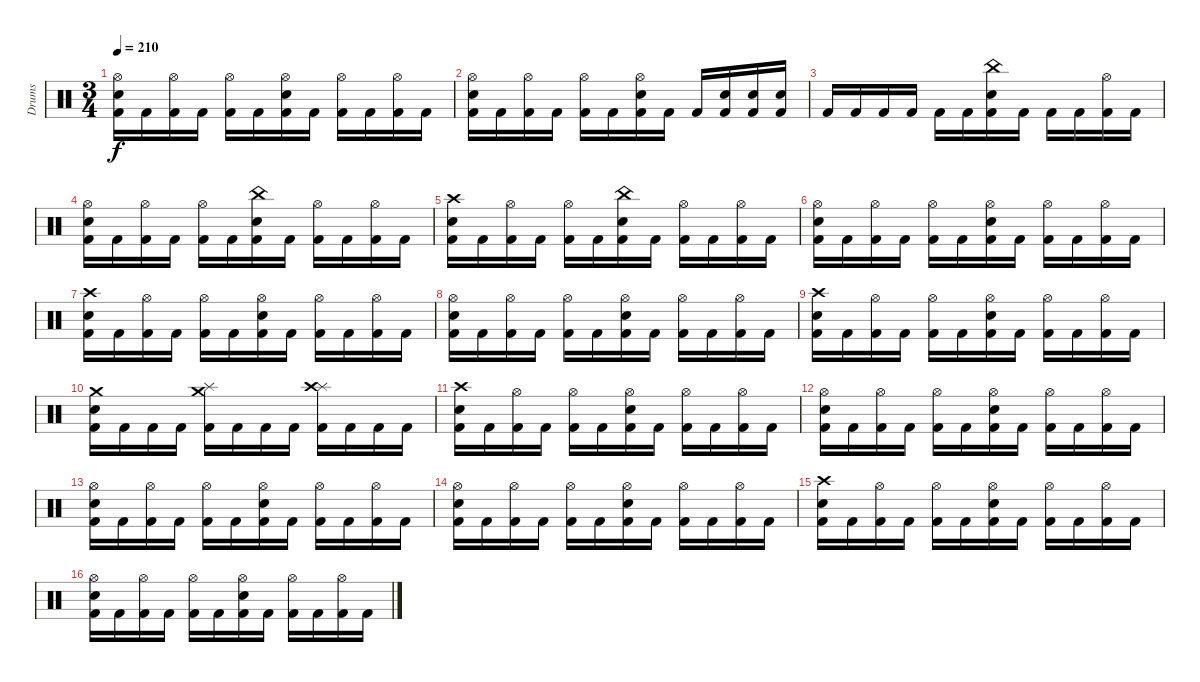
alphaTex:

\track ("Drums" "Drums") {instrument percussion}
\staff {score}
\articulation defaults
\ts (3 4)
\tempo 210
\clef neutral
\ks c
("Kick (hit) 2" "Electric Snare (hit)" "Hi-Hat (open)").16{dy f} "Kick (hit) 2".16 ("Kick (hit) 2" "Hi-Hat (open)").16 "Kick (hit) 2".16 ("Kick (hit) 2" "Hi-Hat (open)").16 "Kick (hit) 2".16 ("Kick (hit) 2" "Electric Snare (hit)" "Hi-Hat (open)").16 "Kick (hit) 2".16 ("Kick (hit) 2" "Hi-Hat (open)").16 "Kick (hit) 2".16 ("Kick (hit) 2" "Hi-Hat (open)").16 "Kick (hit) 2".16 |
("Kick (hit) 2" "Electric Snare (hit)" "Hi-Hat (open)").16 "Kick (hit) 2".16 ("Kick (hit) 2" "Hi-Hat (open)").16 "Kick (hit) 2".16 ("Kick (hit) 2" "Hi-Hat (open)").16 "Kick (hit) 2".16 ("Kick (hit) 2" "Electric Snare (hit)" "Hi-Hat (open)").16 "Kick (hit) 2".16 "Kick (hit) 2".16 ("Kick (hit) 2" "Electric Snare (hit)").16 ("Kick (hit) 2" "Electric Snare (hit)").16 ("Kick (hit) 2" "Electric Snare (hit)").16 |
"Kick (hit) 2".16 "Kick (hit) 2".16 "Kick (hit) 2".16 "Kick (hit) 2".16 "Kick (hit) 2".16 "Kick (hit) 2".16 ("Kick (hit) 2" "Electric Snare (hit)" "China (hit)").16 "Kick (hit) 2".16 "Kick (hit) 2".16 "Kick (hit) 2".16 ("Kick (hit) 2" "Hi-Hat (open)").16 "Kick (hit) 2".16 |
("Kick (hit) 2" "Electric Snare (hit)" "Hi-Hat (open)").16 "Kick (hit) 2".16 ("Kick (hit) 2" "Hi-Hat (open)").16 "Kick (hit) 2".16 ("Kick (hit) 2" "Hi-Hat (open)").16 "Kick (hit) 2".16 ("Kick (hit) 2" "Electric Snare (hit)" "China (hit)").16 "Kick (hit) 2".16 ("Kick (hit) 2" "Hi-Hat (open)").16 "Kick (hit) 2".16 ("Kick (hit) 2" "Hi-Hat (open)").16 "Kick (hit) 2".16 |
("Kick (hit) 2" "Electric Snare (hit)" "Crash high (hit)").16 "Kick (hit) 2".16 ("Kick (hit) 2" "Hi-Hat (open)").16 "Kick (hit) 2".16 ("Kick (hit) 2" "Hi-Hat (open)").16 "Kick (hit) 2".16 ("Kick (hit) 2" "Electric Snare (hit)" "China (hit)").16 "Kick (hit) 2".16 ("Kick (hit) 2" "Hi-Hat (open)").16 "Kick (hit) 2".16 ("Kick (hit) 2" "Hi-Hat (open)").16 "Kick (hit) 2".16 |
("Kick (hit) 2" "Electric Snare (hit)" "Hi-Hat (open)").16 "Kick (hit) 2".16 ("Kick (hit) 2" "Hi-Hat (open)").16 "Kick (hit) 2".16 ("Kick (hit) 2" "Hi-Hat (open)").16 "Kick (hit) 2".16 ("Kick (hit) 2" "Electric Snare (hit)" "Hi-Hat (open)").16 "Kick (hit) 2".16 ("Kick (hit) 2" "Hi-Hat (open)").16 "Kick (hit) 2".16 ("Kick (hit) 2" "Hi-Hat (open)").16 "Kick (hit) 2".16 |
("Kick (hit) 2" "Electric Snare (hit)" "Crash high (hit)").16 "Kick (hit) 2".16 ("Kick (hit) 2" "Hi-Hat (open)").16 "Kick (hit) 2".16 ("Kick (hit) 2" "Hi-Hat (open)").16 "Kick (hit) 2".16 ("Kick (hit) 2" "Electric Snare (hit)" "Hi-Hat (open)").16 "Kick (hit) 2".16 ("Kick (hit) 2" "Hi-Hat (open)").16 "Kick (hit) 2".16 ("Kick (hit) 2" "Hi-Hat (open)").16 "Kick (hit) 2".16 |
("Kick (hit) 2" "Electric Snare (hit)" "Hi-Hat (open)").16 "Kick (hit) 2".16 ("Kick (hit) 2" "Hi-Hat (open)").16 "Kick (hit) 2".16 ("Kick (hit) 2" "Hi-Hat (open)").16 "Kick (hit) 2".16 ("Kick (hit) 2" "Electric Snare (hit)" "Hi-Hat (open)").16 "Kick (hit) 2".16 ("Kick (hit) 2" "Hi-Hat (open)").16 "Kick (hit) 2".16 ("Kick (hit) 2" "Hi-Hat (open)").16 "Kick (hit) 2".16 |
("Kick (hit) 2" "Electric Snare (hit)" "Crash high (hit)").16 "Kick (hit) 2".16 ("Kick (hit) 2" "Hi-Hat (open)").16 "Kick (hit) 2".16 ("Kick (hit) 2" "Hi-Hat (open)").16 "Kick (hit) 2".16 ("Kick (hit) 2" "Electric Snare (hit)" "Hi-Hat (open)").16 "Kick (hit) 2".16 ("Kick (hit) 2" "Hi-Hat (open)").16 "Kick (hit) 2".16 ("Kick (hit) 2" "Hi-Hat (open)").16 "Kick (hit) 2".16 |
("Kick (hit) 2" "Electric Snare (hit)" "Crash medium (hit)").16 "Kick (hit) 2".16 "Kick (hit) 2".16 "Kick (hit) 2".16 ("Kick (hit) 2" "Splash (hit)" "Crash medium (hit)").16 "Kick (hit) 2".16 "Kick (hit) 2".16 "Kick (hit) 2".16 ("Kick (hit) 2" "Splash (hit)" "Crash high (hit)").16 "Kick (hit) 2".16 "Kick (hit) 2".16 "Kick (hit) 2".16 |
("Kick (hit) 2" "Electric Snare (hit)" "Crash high (hit)").16 "Kick (hit) 2".16 ("Kick (hit) 2" "Hi-Hat (open)").16 "Kick (hit) 2".16 ("Kick (hit) 2" "Hi-Hat (open)").16 "Kick (hit) 2".16 ("Kick (hit) 2" "Electric Snare (hit)" "Hi-Hat (open)").16 "Kick (hit) 2".16 ("Kick (hit) 2" "Hi-Hat (open)").16 "Kick (hit) 2".16 ("Kick (hit) 2" "Hi-Hat (open)").16 "Kick (hit) 2".16 |
("Kick (hit) 2" "Electric Snare (hit)" "Hi-Hat (open)").16 "Kick (hit) 2".16 ("Kick (hit) 2" "Hi-Hat (open)").16 "Kick (hit) 2".16 ("Kick (hit) 2" "Hi-Hat (open)").16 "Kick (hit) 2".16 ("Kick (hit) 2" "Electric Snare (hit)" "Hi-Hat (open)").16 "Kick (hit) 2".16 ("Kick (hit) 2" "Hi-Hat (open)").16 "Kick (hit) 2".16 ("Kick (hit) 2" "Hi-Hat (open)").16 "Kick (hit) 2".16 |
("Kick (hit) 2" "Electric Snare (hit)" "Hi-Hat (open)").16 "Kick (hit) 2".16 ("Kick (hit) 2" "Hi-Hat (open)").16 "Kick (hit) 2".16 ("Kick (hit) 2" "Hi-Hat (open)").16 "Kick (hit) 2".16 ("Kick (hit) 2" "Electric Snare (hit)" "Hi-Hat (open)").16 "Kick (hit) 2".16 ("Kick (hit) 2" "Hi-Hat (open)").16 "Kick (hit) 2".16 ("Kick (hit) 2" "Hi-Hat (open)").16 "Kick (hit) 2".16 |
("Kick (hit) 2" "Electric Snare (hit)" "Hi-Hat (open)").16 "Kick (hit) 2".16 ("Kick (hit) 2" "Hi-Hat (open)").16 "Kick (hit) 2".16 ("Kick (hit) 2" "Hi-Hat (open)").16 "Kick (hit) 2".16 ("Kick (hit) 2" "Electric Snare (hit)" "Hi-Hat (open)").16 "Kick (hit) 2".16 ("Kick (hit) 2" "Hi-Hat (open)").16 "Kick (hit) 2".16 ("Kick (hit) 2" "Hi-Hat (open)").16 "Kick (hit) 2".16 |
("Kick (hit) 2" "Electric Snare (hit)" "Crash high (hit)").16 "Kick (hit) 2".16 ("Kick (hit) 2" "Hi-Hat (open)").16 "Kick (hit) 2".16 ("Kick (hit) 2" "Hi-Hat (open)").16 "Kick (hit) 2".16 ("Kick (hit) 2" "Electric Snare (hit)" "Hi-Hat (open)").16 "Kick (hit) 2".16 ("Kick (hit) 2" "Hi-Hat (open)").16 "Kick (hit) 2".16 ("Kick (hit) 2" "Hi-Hat (open)").16 "Kick (hit) 2".16 |
("Kick (hit) 2" "Electric Snare (hit)" "Hi-Hat (open)").16 "Kick (hit) 2".16 ("Kick (hit) 2" "Hi-Hat (open)").16 "Kick (hit) 2".16 ("Kick (hit) 2" "Hi-Hat (open)").16 "Kick (hit) 2".16 ("Kick (hit) 2" "Electric Snare (hit)" "Hi-Hat (open)").16 "Kick (hit) 2".16 ("Kick (hit) 2" "Hi-Hat (open)").16 "Kick (hit) 2".16 ("Kick (hit) 2" "Hi-Hat (open)").16 "Kick (hit) 2".16
